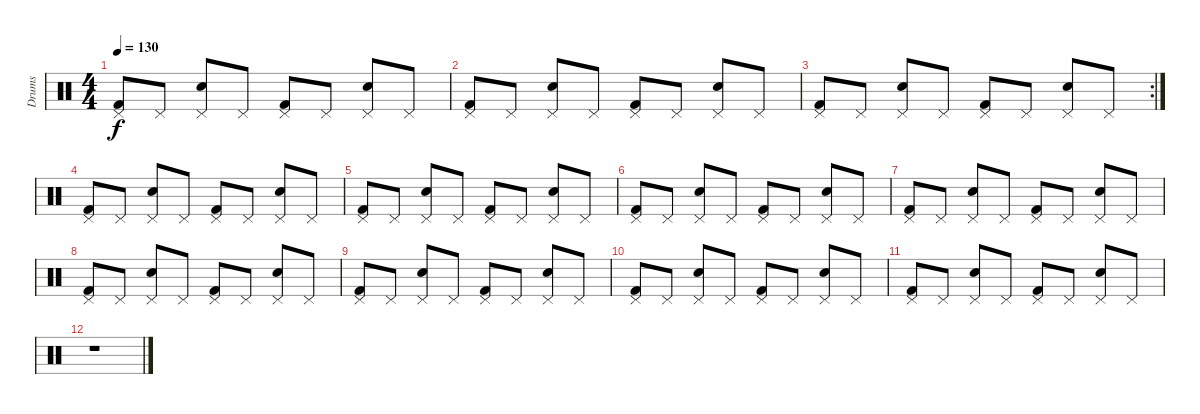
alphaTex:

\track ("Drums" "Drums") {instrument percussion}
\staff {score}
\articulation defaults
\ts (4 4)
\tempo 130
\clef neutral
\ks c
("Pedal Hi-Hat (hit)" "Kick (hit) 2").8{dy f} "Pedal Hi-Hat (hit)".8 ("Pedal Hi-Hat (hit)" "Snare (hit) 2").8 "Pedal Hi-Hat (hit)".8 ("Pedal Hi-Hat (hit)" "Kick (hit) 2").8 "Pedal Hi-Hat (hit)".8 ("Pedal Hi-Hat (hit)" "Snare (hit) 2").8 "Pedal Hi-Hat (hit)".8 |
("Pedal Hi-Hat (hit)" "Kick (hit) 2").8 "Pedal Hi-Hat (hit)".8 ("Pedal Hi-Hat (hit)" "Snare (hit) 2").8 "Pedal Hi-Hat (hit)".8 ("Pedal Hi-Hat (hit)" "Kick (hit) 2").8 "Pedal Hi-Hat (hit)".8 ("Pedal Hi-Hat (hit)" "Snare (hit) 2").8 "Pedal Hi-Hat (hit)".8 |
\rc 2
("Pedal Hi-Hat (hit)" "Kick (hit) 2").8 "Pedal Hi-Hat (hit)".8 ("Pedal Hi-Hat (hit)" "Snare (hit) 2").8 "Pedal Hi-Hat (hit)".8 ("Pedal Hi-Hat (hit)" "Kick (hit) 2").8 "Pedal Hi-Hat (hit)".8 ("Pedal Hi-Hat (hit)" "Snare (hit) 2").8 "Pedal Hi-Hat (hit)".8 |
("Pedal Hi-Hat (hit)" "Kick (hit) 2").8 "Pedal Hi-Hat (hit)".8 ("Pedal Hi-Hat (hit)" "Snare (hit) 2").8 "Pedal Hi-Hat (hit)".8 ("Pedal Hi-Hat (hit)" "Kick (hit) 2").8 "Pedal Hi-Hat (hit)".8 ("Pedal Hi-Hat (hit)" "Snare (hit) 2").8 "Pedal Hi-Hat (hit)".8 |
("Pedal Hi-Hat (hit)" "Kick (hit) 2").8 "Pedal Hi-Hat (hit)".8 ("Pedal Hi-Hat (hit)" "Snare (hit) 2").8 "Pedal Hi-Hat (hit)".8 ("Pedal Hi-Hat (hit)" "Kick (hit) 2").8 "Pedal Hi-Hat (hit)".8 ("Pedal Hi-Hat (hit)" "Snare (hit) 2").8 "Pedal Hi-Hat (hit)".8 |
("Pedal Hi-Hat (hit)" "Kick (hit) 2").8 "Pedal Hi-Hat (hit)".8 ("Pedal Hi-Hat (hit)" "Snare (hit) 2").8 "Pedal Hi-Hat (hit)".8 ("Pedal Hi-Hat (hit)" "Kick (hit) 2").8 "Pedal Hi-Hat (hit)".8 ("Pedal Hi-Hat (hit)" "Snare (hit) 2").8 "Pedal Hi-Hat (hit)".8 |
("Pedal Hi-Hat (hit)" "Kick (hit) 2").8 "Pedal Hi-Hat (hit)".8 ("Pedal Hi-Hat (hit)" "Snare (hit) 2").8 "Pedal Hi-Hat (hit)".8 ("Pedal Hi-Hat (hit)" "Kick (hit) 2").8 "Pedal Hi-Hat (hit)".8 ("Pedal Hi-Hat (hit)" "Snare (hit) 2").8 "Pedal Hi-Hat (hit)".8 |
("Pedal Hi-Hat (hit)" "Kick (hit) 2").8 "Pedal Hi-Hat (hit)".8 ("Pedal Hi-Hat (hit)" "Snare (hit) 2").8 "Pedal Hi-Hat (hit)".8 ("Pedal Hi-Hat (hit)" "Kick (hit) 2").8 "Pedal Hi-Hat (hit)".8 ("Pedal Hi-Hat (hit)" "Snare (hit) 2").8 "Pedal Hi-Hat (hit)".8 |
("Pedal Hi-Hat (hit)" "Kick (hit) 2").8 "Pedal Hi-Hat (hit)".8 ("Pedal Hi-Hat (hit)" "Snare (hit) 2").8 "Pedal Hi-Hat (hit)".8 ("Pedal Hi-Hat (hit)" "Kick (hit) 2").8 "Pedal Hi-Hat (hit)".8 ("Pedal Hi-Hat (hit)" "Snare (hit) 2").8 "Pedal Hi-Hat (hit)".8 |
("Pedal Hi-Hat (hit)" "Kick (hit) 2").8 "Pedal Hi-Hat (hit)".8 ("Pedal Hi-Hat (hit)" "Snare (hit) 2").8 "Pedal Hi-Hat (hit)".8 ("Pedal Hi-Hat (hit)" "Kick (hit) 2").8 "Pedal Hi-Hat (hit)".8 ("Pedal Hi-Hat (hit)" "Snare (hit) 2").8 "Pedal Hi-Hat (hit)".8 |
("Pedal Hi-Hat (hit)" "Kick (hit) 2").8 "Pedal Hi-Hat (hit)".8 ("Pedal Hi-Hat (hit)" "Snare (hit) 2").8 "Pedal Hi-Hat (hit)".8 ("Pedal Hi-Hat (hit)" "Kick (hit) 2").8 "Pedal Hi-Hat (hit)".8 ("Pedal Hi-Hat (hit)" "Snare (hit) 2").8 "Pedal Hi-Hat (hit)".8 |
r.1
